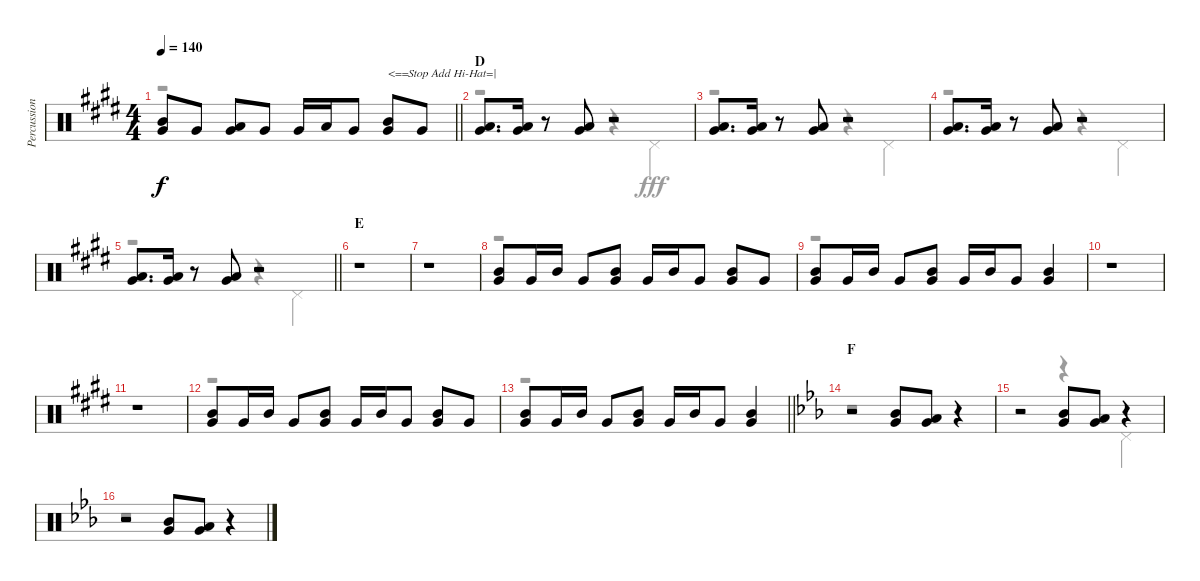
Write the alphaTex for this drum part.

\track ("Percussion" "Percussion") {instrument percussion}
\staff {score}
\articulation defaults
\voice
\ts (4 4)
\tempo 140
\clef neutral
\barLineRight lightlight
\ks e
("Mid Tom (hit)" "Very Low Tom (hit)").8{dy f} "Very Low Tom (hit)".8 ("Low Tom (hit)" "Very Low Tom (hit)").8 "Very Low Tom (hit)".8 "Very Low Tom (hit)".16 "Low Tom (hit)".16 "Very Low Tom (hit)".8 ("Mid Tom (hit)" "Very Low Tom (hit)").8{txt "<==Stop Add Hi-Hat=|"} "Very Low Tom (hit)".8 |
\section ("" "D")
("Low Tom (hit)" "Very Low Tom (hit)").8{d} ("Low Tom (hit)" "Very Low Tom (hit)").16 r.8 ("Low Tom (hit)" "Very Low Tom (hit)").8 r.2 |
("Low Tom (hit)" "Very Low Tom (hit)").8{d} ("Low Tom (hit)" "Very Low Tom (hit)").16 r.8 ("Low Tom (hit)" "Very Low Tom (hit)").8 r.2 |
("Low Tom (hit)" "Very Low Tom (hit)").8{d} ("Low Tom (hit)" "Very Low Tom (hit)").16 r.8 ("Low Tom (hit)" "Very Low Tom (hit)").8 r.2 |
\barLineRight lightlight
("Low Tom (hit)" "Very Low Tom (hit)").8{d} ("Low Tom (hit)" "Very Low Tom (hit)").16 r.8 ("Low Tom (hit)" "Very Low Tom (hit)").8 r.2 |
\section ("" "E")
r.1 |
r.1 |
("Mid Tom (hit)" "Very Low Tom (hit)").8 "Very Low Tom (hit)".16 "Mid Tom (hit)".16 "Very Low Tom (hit)".8 ("Mid Tom (hit)" "Very Low Tom (hit)").8 "Very Low Tom (hit)".16 "Mid Tom (hit)".16 "Very Low Tom (hit)".8 ("Mid Tom (hit)" "Very Low Tom (hit)").8 "Very Low Tom (hit)".8 |
("Mid Tom (hit)" "Very Low Tom (hit)").8 "Very Low Tom (hit)".16 "Mid Tom (hit)".16 "Very Low Tom (hit)".8 ("Mid Tom (hit)" "Very Low Tom (hit)").8 "Very Low Tom (hit)".16 "Mid Tom (hit)".16 "Very Low Tom (hit)".8 ("Mid Tom (hit)" "Very Low Tom (hit)").4 |
r.1 |
r.1 |
("Mid Tom (hit)" "Very Low Tom (hit)").8 "Very Low Tom (hit)".16 "Mid Tom (hit)".16 "Very Low Tom (hit)".8 ("Mid Tom (hit)" "Very Low Tom (hit)").8 "Very Low Tom (hit)".16 "Mid Tom (hit)".16 "Very Low Tom (hit)".8 ("Mid Tom (hit)" "Very Low Tom (hit)").8 "Very Low Tom (hit)".8 |
\barLineRight lightlight
("Mid Tom (hit)" "Very Low Tom (hit)").8 "Very Low Tom (hit)".16 "Mid Tom (hit)".16 "Very Low Tom (hit)".8 ("Mid Tom (hit)" "Very Low Tom (hit)").8 "Very Low Tom (hit)".16 "Mid Tom (hit)".16 "Very Low Tom (hit)".8 ("Mid Tom (hit)" "Very Low Tom (hit)").4 |
\section ("" "F")
\ks eb
r.2 ("Mid Tom (hit)" "Very Low Tom (hit)").8 ("Low Tom (hit)" "Very Low Tom (hit)").8 r.4 |
r.2 ("Mid Tom (hit)" "Very Low Tom (hit)").8 ("Low Tom (hit)" "Very Low Tom (hit)").8 r.4 |
r.2 ("Mid Tom (hit)" "Very Low Tom (hit)").8 ("Low Tom (hit)" "Very Low Tom (hit)").8 r.4
\voice
\clef neutral
\ottava regular
\simile none
\barLineRight lightlight
\ks e
r.1{dy fff} |
r.2 r.4 "Pedal Hi-Hat (hit)".4 |
r.2 r.4 "Pedal Hi-Hat (hit)".4 |
r.2 r.4 "Pedal Hi-Hat (hit)".4 |
\barLineRight lightlight
r.2 r.4 "Pedal Hi-Hat (hit)".4 |
r.1 |
r.1 |
r.1 |
r.1 |
r.1 |
r.1 |
r.1 |
\barLineRight lightlight
r.1 |
\ks eb
r.1 |
r.2 r.4 "Pedal Hi-Hat (hit)".4 |
r.1
